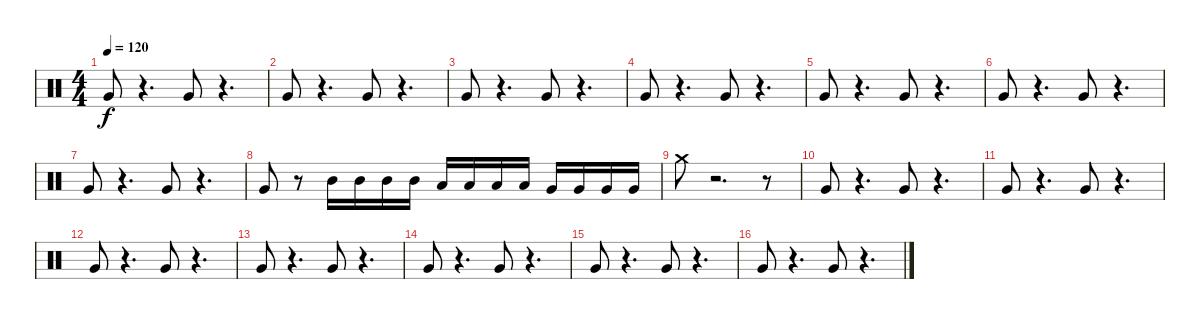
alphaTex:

\track "" {instrument percussion}
\staff {score}
\articulation defaults
\ts (4 4)
\tempo 120
\clef neutral
\ks c "Very Low Tom (hit)".8{dy f}
r.4{d} "Very Low Tom (hit)".8 r.4{d} |
"Very Low Tom (hit)".8 r.4{d} "Very Low Tom (hit)".8 r.4{d} |
"Very Low Tom (hit)".8 r.4{d} "Very Low Tom (hit)".8 r.4{d} |
"Very Low Tom (hit)".8 r.4{d} "Very Low Tom (hit)".8 r.4{d} |
"Very Low Tom (hit)".8 r.4{d} "Very Low Tom (hit)".8 r.4{d} |
"Very Low Tom (hit)".8 r.4{d} "Very Low Tom (hit)".8 r.4{d} |
"Very Low Tom (hit)".8 r.4{d} "Very Low Tom (hit)".8 r.4{d} |
"Very Low Tom (hit)".8 r.8 "Mid Tom (hit)".16 "Mid Tom (hit)".16 "Mid Tom (hit)".16 "Mid Tom (hit)".16 "Low Tom (hit)".16 "Low Tom (hit)".16 "Low Tom (hit)".16 "Low Tom (hit)".16 "Very Low Tom (hit)".16 "Very Low Tom (hit)".16 "Very Low Tom (hit)".16 "Very Low Tom (hit)".16 |
"Crash medium (hit)".8 r.2{d} r.8 |
"Very Low Tom (hit)".8 r.4{d} "Very Low Tom (hit)".8 r.4{d} |
"Very Low Tom (hit)".8 r.4{d} "Very Low Tom (hit)".8 r.4{d} |
"Very Low Tom (hit)".8 r.4{d} "Very Low Tom (hit)".8 r.4{d} |
"Very Low Tom (hit)".8 r.4{d} "Very Low Tom (hit)".8 r.4{d} |
"Very Low Tom (hit)".8 r.4{d} "Very Low Tom (hit)".8 r.4{d} |
"Very Low Tom (hit)".8 r.4{d} "Very Low Tom (hit)".8 r.4{d} |
"Very Low Tom (hit)".8 r.4{d} "Very Low Tom (hit)".8 r.4{d}
